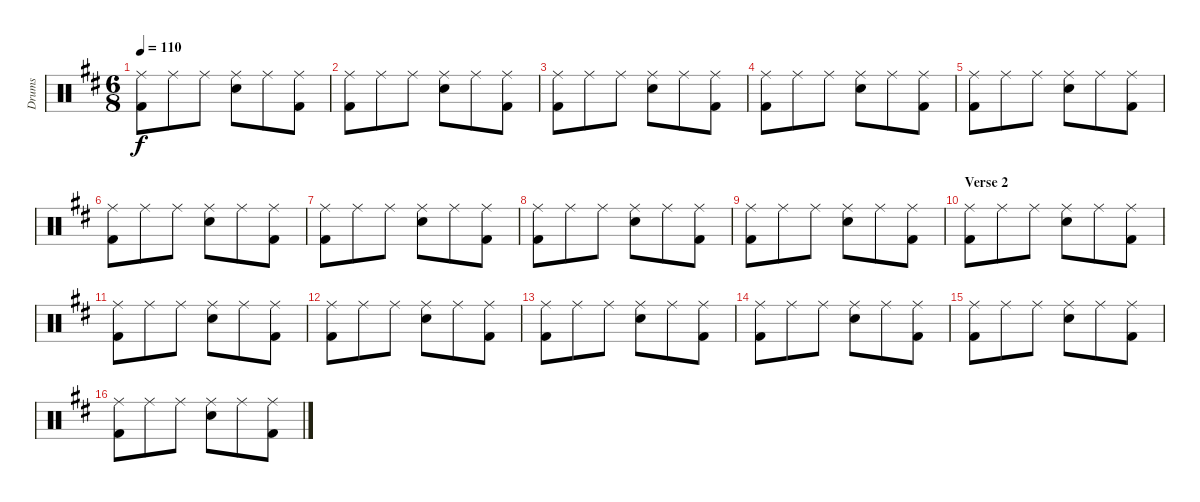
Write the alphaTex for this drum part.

\track ("Drums" "Drums") {instrument percussion}
\staff {score}
\articulation defaults
\ts (6 8)
\tempo 110
\clef neutral
\ks d
("Ride (middle)" "Kick (hit) 2").8{dy f} "Ride (middle)".8 "Ride (middle)".8 ("Ride (middle)" "Electric Snare (hit)").8 "Ride (middle)".8 ("Ride (middle)" "Kick (hit) 2").8 |
("Ride (middle)" "Kick (hit) 2").8 "Ride (middle)".8 "Ride (middle)".8 ("Ride (middle)" "Electric Snare (hit)").8 "Ride (middle)".8 ("Ride (middle)" "Kick (hit) 2").8 |
("Ride (middle)" "Kick (hit) 2").8 "Ride (middle)".8 "Ride (middle)".8 ("Ride (middle)" "Electric Snare (hit)").8 "Ride (middle)".8 ("Ride (middle)" "Kick (hit) 2").8 |
("Ride (middle)" "Kick (hit) 2").8 "Ride (middle)".8 "Ride (middle)".8 ("Ride (middle)" "Electric Snare (hit)").8 "Ride (middle)".8 ("Ride (middle)" "Kick (hit) 2").8 |
("Ride (middle)" "Kick (hit) 2").8 "Ride (middle)".8 "Ride (middle)".8 ("Ride (middle)" "Electric Snare (hit)").8 "Ride (middle)".8 ("Ride (middle)" "Kick (hit) 2").8 |
("Ride (middle)" "Kick (hit) 2").8 "Ride (middle)".8 "Ride (middle)".8 ("Ride (middle)" "Electric Snare (hit)").8 "Ride (middle)".8 ("Ride (middle)" "Kick (hit) 2").8 |
("Ride (middle)" "Kick (hit) 2").8 "Ride (middle)".8 "Ride (middle)".8 ("Ride (middle)" "Electric Snare (hit)").8 "Ride (middle)".8 ("Ride (middle)" "Kick (hit) 2").8 |
("Ride (middle)" "Kick (hit) 2").8 "Ride (middle)".8 "Ride (middle)".8 ("Ride (middle)" "Electric Snare (hit)").8 "Ride (middle)".8 ("Ride (middle)" "Kick (hit) 2").8 |
("Ride (middle)" "Kick (hit) 2").8 "Ride (middle)".8 "Ride (middle)".8 ("Ride (middle)" "Electric Snare (hit)").8 "Ride (middle)".8 ("Ride (middle)" "Kick (hit) 2").8 |
\section ("" "Verse 2")
("Ride (middle)" "Kick (hit) 2").8 "Ride (middle)".8 "Ride (middle)".8 ("Ride (middle)" "Electric Snare (hit)").8 "Ride (middle)".8 ("Ride (middle)" "Kick (hit) 2").8 |
("Ride (middle)" "Kick (hit) 2").8 "Ride (middle)".8 "Ride (middle)".8 ("Ride (middle)" "Electric Snare (hit)").8 "Ride (middle)".8 ("Ride (middle)" "Kick (hit) 2").8 |
("Ride (middle)" "Kick (hit) 2").8 "Ride (middle)".8 "Ride (middle)".8 ("Ride (middle)" "Electric Snare (hit)").8 "Ride (middle)".8 ("Ride (middle)" "Kick (hit) 2").8 |
("Ride (middle)" "Kick (hit) 2").8 "Ride (middle)".8 "Ride (middle)".8 ("Ride (middle)" "Electric Snare (hit)").8 "Ride (middle)".8 ("Ride (middle)" "Kick (hit) 2").8 |
("Ride (middle)" "Kick (hit) 2").8 "Ride (middle)".8 "Ride (middle)".8 ("Ride (middle)" "Electric Snare (hit)").8 "Ride (middle)".8 ("Ride (middle)" "Kick (hit) 2").8 |
("Ride (middle)" "Kick (hit) 2").8 "Ride (middle)".8 "Ride (middle)".8 ("Ride (middle)" "Electric Snare (hit)").8 "Ride (middle)".8 ("Ride (middle)" "Kick (hit) 2").8 |
("Ride (middle)" "Kick (hit) 2").8 "Ride (middle)".8 "Ride (middle)".8 ("Ride (middle)" "Electric Snare (hit)").8 "Ride (middle)".8 ("Ride (middle)" "Kick (hit) 2").8
